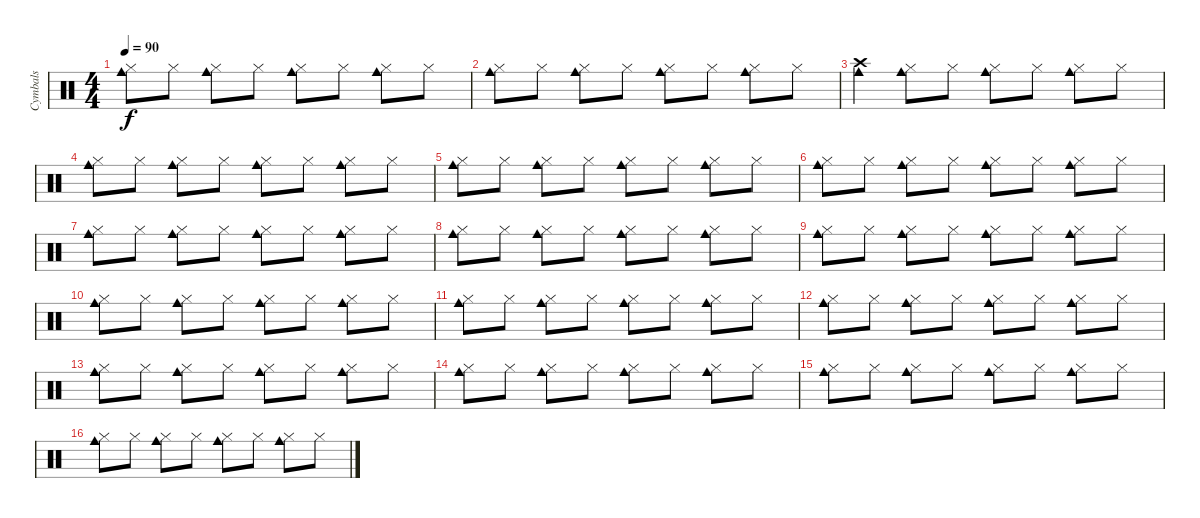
\track ("Cymbals" "Cymbals") {instrument percussion}
\staff {score}
\articulation defaults
\ts (4 4)
\tempo 90
\clef neutral
\ks c
("Cowbell medium (hit)" "Hi-Hat (closed)").8{dy f} "Hi-Hat (closed)".8 ("Cowbell medium (hit)" "Hi-Hat (closed)").8 "Hi-Hat (closed)".8 ("Cowbell medium (hit)" "Hi-Hat (closed)").8 "Hi-Hat (closed)".8 ("Cowbell medium (hit)" "Hi-Hat (closed)").8 "Hi-Hat (closed)".8 |
("Cowbell medium (hit)" "Hi-Hat (closed)").8 "Hi-Hat (closed)".8 ("Cowbell medium (hit)" "Hi-Hat (closed)").8 "Hi-Hat (closed)".8 ("Cowbell medium (hit)" "Hi-Hat (closed)").8 "Hi-Hat (closed)".8 ("Cowbell medium (hit)" "Hi-Hat (closed)").8 "Hi-Hat (closed)".8 |
("Cowbell medium (hit)" "Crash high (hit)").4 ("Cowbell medium (hit)" "Hi-Hat (closed)").8 "Hi-Hat (closed)".8 ("Cowbell medium (hit)" "Hi-Hat (closed)").8 "Hi-Hat (closed)".8 ("Cowbell medium (hit)" "Hi-Hat (closed)").8 "Hi-Hat (closed)".8 |
("Cowbell medium (hit)" "Hi-Hat (closed)").8 "Hi-Hat (closed)".8 ("Cowbell medium (hit)" "Hi-Hat (closed)").8 "Hi-Hat (closed)".8 ("Cowbell medium (hit)" "Hi-Hat (closed)").8 "Hi-Hat (closed)".8 ("Cowbell medium (hit)" "Hi-Hat (closed)").8 "Hi-Hat (closed)".8 |
("Cowbell medium (hit)" "Hi-Hat (closed)").8 "Hi-Hat (closed)".8 ("Cowbell medium (hit)" "Hi-Hat (closed)").8 "Hi-Hat (closed)".8 ("Cowbell medium (hit)" "Hi-Hat (closed)").8 "Hi-Hat (closed)".8 ("Cowbell medium (hit)" "Hi-Hat (closed)").8 "Hi-Hat (closed)".8 |
("Cowbell medium (hit)" "Hi-Hat (closed)").8 "Hi-Hat (closed)".8 ("Cowbell medium (hit)" "Hi-Hat (closed)").8 "Hi-Hat (closed)".8 ("Cowbell medium (hit)" "Hi-Hat (closed)").8 "Hi-Hat (closed)".8 ("Cowbell medium (hit)" "Hi-Hat (closed)").8 "Hi-Hat (closed)".8 |
("Cowbell medium (hit)" "Hi-Hat (closed)").8 "Hi-Hat (closed)".8 ("Cowbell medium (hit)" "Hi-Hat (closed)").8 "Hi-Hat (closed)".8 ("Cowbell medium (hit)" "Hi-Hat (closed)").8 "Hi-Hat (closed)".8 ("Cowbell medium (hit)" "Hi-Hat (closed)").8 "Hi-Hat (closed)".8 |
("Cowbell medium (hit)" "Hi-Hat (closed)").8 "Hi-Hat (closed)".8 ("Cowbell medium (hit)" "Hi-Hat (closed)").8 "Hi-Hat (closed)".8 ("Cowbell medium (hit)" "Hi-Hat (closed)").8 "Hi-Hat (closed)".8 ("Cowbell medium (hit)" "Hi-Hat (closed)").8 "Hi-Hat (closed)".8 |
("Cowbell medium (hit)" "Hi-Hat (closed)").8 "Hi-Hat (closed)".8 ("Cowbell medium (hit)" "Hi-Hat (closed)").8 "Hi-Hat (closed)".8 ("Cowbell medium (hit)" "Hi-Hat (closed)").8 "Hi-Hat (closed)".8 ("Cowbell medium (hit)" "Hi-Hat (closed)").8 "Hi-Hat (closed)".8 |
("Cowbell medium (hit)" "Hi-Hat (closed)").8 "Hi-Hat (closed)".8 ("Cowbell medium (hit)" "Hi-Hat (closed)").8 "Hi-Hat (closed)".8 ("Cowbell medium (hit)" "Hi-Hat (closed)").8 "Hi-Hat (closed)".8 ("Cowbell medium (hit)" "Hi-Hat (closed)").8 "Hi-Hat (closed)".8 |
("Cowbell medium (hit)" "Hi-Hat (closed)").8 "Hi-Hat (closed)".8 ("Cowbell medium (hit)" "Hi-Hat (closed)").8 "Hi-Hat (closed)".8 ("Cowbell medium (hit)" "Hi-Hat (closed)").8 "Hi-Hat (closed)".8 ("Cowbell medium (hit)" "Hi-Hat (closed)").8 "Hi-Hat (closed)".8 |
("Cowbell medium (hit)" "Hi-Hat (closed)").8 "Hi-Hat (closed)".8 ("Cowbell medium (hit)" "Hi-Hat (closed)").8 "Hi-Hat (closed)".8 ("Cowbell medium (hit)" "Hi-Hat (closed)").8 "Hi-Hat (closed)".8 ("Cowbell medium (hit)" "Hi-Hat (closed)").8 "Hi-Hat (closed)".8 |
("Cowbell medium (hit)" "Hi-Hat (closed)").8 "Hi-Hat (closed)".8 ("Cowbell medium (hit)" "Hi-Hat (closed)").8 "Hi-Hat (closed)".8 ("Cowbell medium (hit)" "Hi-Hat (closed)").8 "Hi-Hat (closed)".8 ("Cowbell medium (hit)" "Hi-Hat (closed)").8 "Hi-Hat (closed)".8 |
("Cowbell medium (hit)" "Hi-Hat (closed)").8 "Hi-Hat (closed)".8 ("Cowbell medium (hit)" "Hi-Hat (closed)").8 "Hi-Hat (closed)".8 ("Cowbell medium (hit)" "Hi-Hat (closed)").8 "Hi-Hat (closed)".8 ("Cowbell medium (hit)" "Hi-Hat (closed)").8 "Hi-Hat (closed)".8 |
("Cowbell medium (hit)" "Hi-Hat (closed)").8 "Hi-Hat (closed)".8 ("Cowbell medium (hit)" "Hi-Hat (closed)").8 "Hi-Hat (closed)".8 ("Cowbell medium (hit)" "Hi-Hat (closed)").8 "Hi-Hat (closed)".8 ("Cowbell medium (hit)" "Hi-Hat (closed)").8 "Hi-Hat (closed)".8 |
("Cowbell medium (hit)" "Hi-Hat (closed)").8 "Hi-Hat (closed)".8 ("Cowbell medium (hit)" "Hi-Hat (closed)").8 "Hi-Hat (closed)".8 ("Cowbell medium (hit)" "Hi-Hat (closed)").8 "Hi-Hat (closed)".8 ("Cowbell medium (hit)" "Hi-Hat (closed)").8 "Hi-Hat (closed)".8
